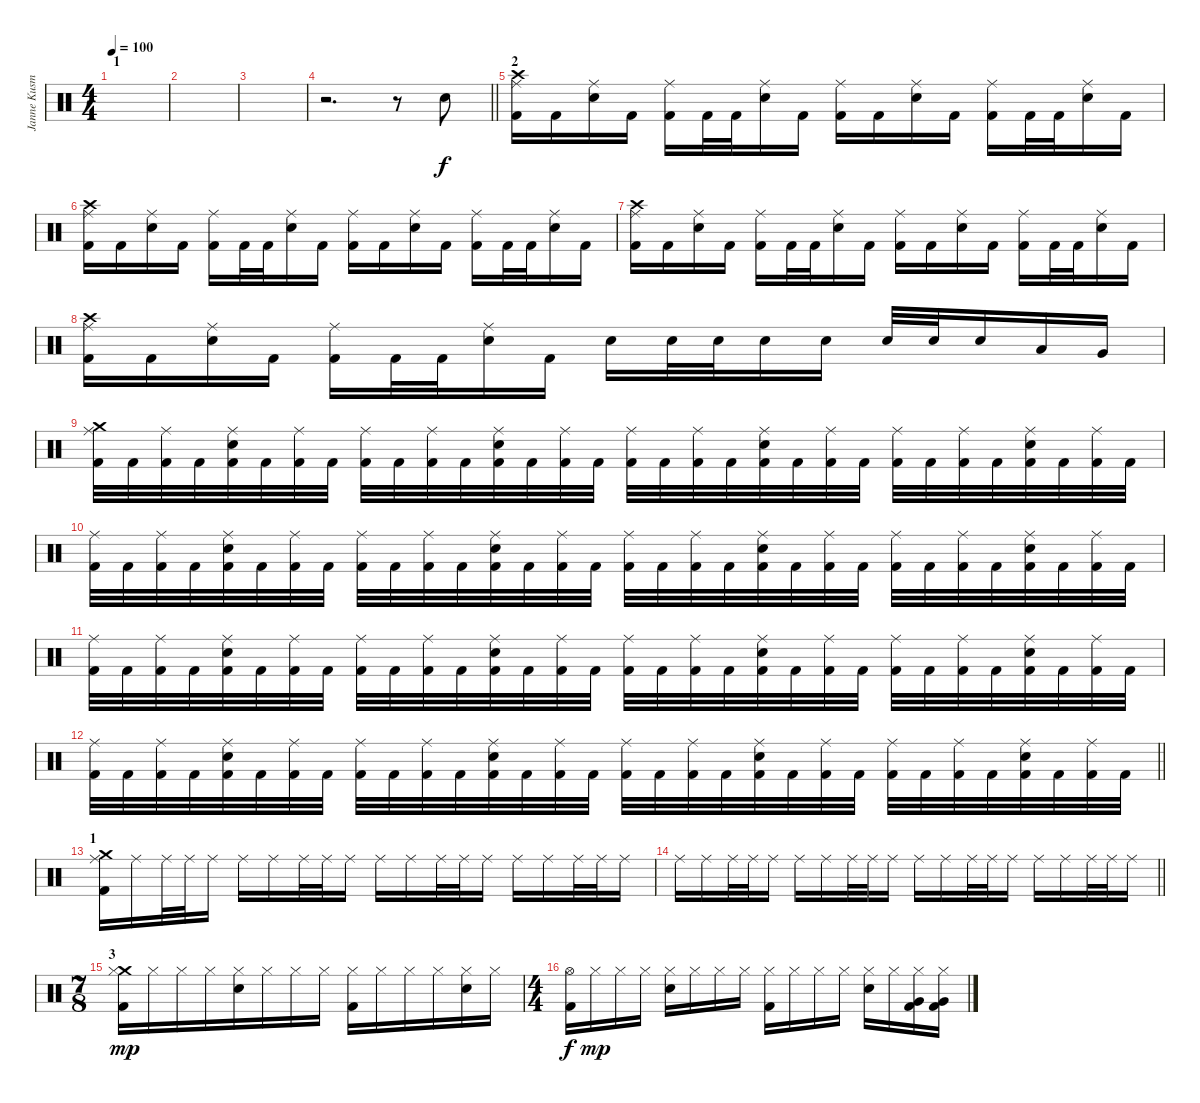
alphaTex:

\track ("Janne Kusmin " "Janne Kusm") {instrument percussion}
\staff {score}
\articulation defaults
\ts (4 4)
\section ("" "1")
\tempo 100
\clef neutral
\ks c
|
|
|
\barLineRight lightlight
r.2{d} r.8 "Electric Snare (hit)".8 |
\section ("" "2")
("Crash high (hit)" "Ride (middle)" "Kick (hit) 2").16 "Kick (hit) 2".16 ("Ride (middle)" "Electric Snare (hit)").16 "Kick (hit) 2".16 ("Ride (middle)" "Kick (hit) 2").16 "Kick (hit) 2".32 "Kick (hit) 2".32 ("Ride (middle)" "Electric Snare (hit)").16 "Kick (hit) 2".16 ("Ride (middle)" "Kick (hit) 2").16 "Kick (hit) 2".16 ("Ride (middle)" "Electric Snare (hit)").16 "Kick (hit) 2".16 ("Ride (middle)" "Kick (hit) 2").16 "Kick (hit) 2".32 "Kick (hit) 2".32 ("Ride (middle)" "Electric Snare (hit)").16 "Kick (hit) 2".16 |
("Crash high (hit)" "Ride (middle)" "Kick (hit) 2").16 "Kick (hit) 2".16 ("Ride (middle)" "Electric Snare (hit)").16 "Kick (hit) 2".16 ("Ride (middle)" "Kick (hit) 2").16 "Kick (hit) 2".32 "Kick (hit) 2".32 ("Ride (middle)" "Electric Snare (hit)").16 "Kick (hit) 2".16 ("Ride (middle)" "Kick (hit) 2").16 "Kick (hit) 2".16 ("Ride (middle)" "Electric Snare (hit)").16 "Kick (hit) 2".16 ("Ride (middle)" "Kick (hit) 2").16 "Kick (hit) 2".32 "Kick (hit) 2".32 ("Ride (middle)" "Electric Snare (hit)").16 "Kick (hit) 2".16 |
("Crash high (hit)" "Ride (middle)" "Kick (hit) 2").16 "Kick (hit) 2".16 ("Ride (middle)" "Electric Snare (hit)").16 "Kick (hit) 2".16 ("Ride (middle)" "Kick (hit) 2").16 "Kick (hit) 2".32 "Kick (hit) 2".32 ("Ride (middle)" "Electric Snare (hit)").16 "Kick (hit) 2".16 ("Ride (middle)" "Kick (hit) 2").16 "Kick (hit) 2".16 ("Ride (middle)" "Electric Snare (hit)").16 "Kick (hit) 2".16 ("Ride (middle)" "Kick (hit) 2").16 "Kick (hit) 2".32 "Kick (hit) 2".32 ("Ride (middle)" "Electric Snare (hit)").16 "Kick (hit) 2".16 |
("Crash high (hit)" "Ride (middle)" "Kick (hit) 2").16 "Kick (hit) 2".16 ("Ride (middle)" "Electric Snare (hit)").16 "Kick (hit) 2".16 ("Ride (middle)" "Kick (hit) 2").16 "Kick (hit) 2".32 "Kick (hit) 2".32 ("Ride (middle)" "Electric Snare (hit)").16 "Kick (hit) 2".16 "Electric Snare (hit)".16 "Electric Snare (hit)".32 "Electric Snare (hit)".32 "Electric Snare (hit)".16 "Electric Snare (hit)".16 "Electric Snare (hit)".32 "Electric Snare (hit)".32 "Electric Snare (hit)".16 "Low Tom (hit)".16 "Very Low Tom (hit)".16 |
("Crash medium (hit)" "Ride (middle)" "Kick (hit) 2").32 "Kick (hit) 2".32 ("Ride (middle)" "Kick (hit) 2").32 "Kick (hit) 2".32 ("Ride (middle)" "Electric Snare (hit)" "Kick (hit) 2").32 "Kick (hit) 2".32 ("Ride (middle)" "Kick (hit) 2").32 "Kick (hit) 2".32 ("Ride (middle)" "Kick (hit) 2").32 "Kick (hit) 2".32 ("Ride (middle)" "Kick (hit) 2").32 "Kick (hit) 2".32 ("Ride (middle)" "Electric Snare (hit)" "Kick (hit) 2").32 "Kick (hit) 2".32 ("Ride (middle)" "Kick (hit) 2").32 "Kick (hit) 2".32 ("Ride (middle)" "Kick (hit) 2").32 "Kick (hit) 2".32 ("Ride (middle)" "Kick (hit) 2").32 "Kick (hit) 2".32 ("Ride (middle)" "Electric Snare (hit)" "Kick (hit) 2").32 "Kick (hit) 2".32 ("Ride (middle)" "Kick (hit) 2").32 "Kick (hit) 2".32 ("Ride (middle)" "Kick (hit) 2").32 "Kick (hit) 2".32 ("Ride (middle)" "Kick (hit) 2").32 "Kick (hit) 2".32 ("Ride (middle)" "Electric Snare (hit)" "Kick (hit) 2").32 "Kick (hit) 2".32 ("Ride (middle)" "Kick (hit) 2").32 "Kick (hit) 2".32 |
("Ride (middle)" "Kick (hit) 2").32 "Kick (hit) 2".32 ("Ride (middle)" "Kick (hit) 2").32 "Kick (hit) 2".32 ("Ride (middle)" "Electric Snare (hit)" "Kick (hit) 2").32 "Kick (hit) 2".32 ("Ride (middle)" "Kick (hit) 2").32 "Kick (hit) 2".32 ("Ride (middle)" "Kick (hit) 2").32 "Kick (hit) 2".32 ("Ride (middle)" "Kick (hit) 2").32 "Kick (hit) 2".32 ("Ride (middle)" "Electric Snare (hit)" "Kick (hit) 2").32 "Kick (hit) 2".32 ("Ride (middle)" "Kick (hit) 2").32 "Kick (hit) 2".32 ("Ride (middle)" "Kick (hit) 2").32 "Kick (hit) 2".32 ("Ride (middle)" "Kick (hit) 2").32 "Kick (hit) 2".32 ("Ride (middle)" "Electric Snare (hit)" "Kick (hit) 2").32 "Kick (hit) 2".32 ("Ride (middle)" "Kick (hit) 2").32 "Kick (hit) 2".32 ("Ride (middle)" "Kick (hit) 2").32 "Kick (hit) 2".32 ("Ride (middle)" "Kick (hit) 2").32 "Kick (hit) 2".32 ("Ride (middle)" "Electric Snare (hit)" "Kick (hit) 2").32 "Kick (hit) 2".32 ("Ride (middle)" "Kick (hit) 2").32 "Kick (hit) 2".32 |
("Ride (middle)" "Kick (hit) 2").32 "Kick (hit) 2".32 ("Ride (middle)" "Kick (hit) 2").32 "Kick (hit) 2".32 ("Ride (middle)" "Electric Snare (hit)" "Kick (hit) 2").32 "Kick (hit) 2".32 ("Ride (middle)" "Kick (hit) 2").32 "Kick (hit) 2".32 ("Ride (middle)" "Kick (hit) 2").32 "Kick (hit) 2".32 ("Ride (middle)" "Kick (hit) 2").32 "Kick (hit) 2".32 ("Ride (middle)" "Electric Snare (hit)" "Kick (hit) 2").32 "Kick (hit) 2".32 ("Ride (middle)" "Kick (hit) 2").32 "Kick (hit) 2".32 ("Ride (middle)" "Kick (hit) 2").32 "Kick (hit) 2".32 ("Ride (middle)" "Kick (hit) 2").32 "Kick (hit) 2".32 ("Ride (middle)" "Electric Snare (hit)" "Kick (hit) 2").32 "Kick (hit) 2".32 ("Ride (middle)" "Kick (hit) 2").32 "Kick (hit) 2".32 ("Ride (middle)" "Kick (hit) 2").32 "Kick (hit) 2".32 ("Ride (middle)" "Kick (hit) 2").32 "Kick (hit) 2".32 ("Ride (middle)" "Electric Snare (hit)" "Kick (hit) 2").32 "Kick (hit) 2".32 ("Ride (middle)" "Kick (hit) 2").32 "Kick (hit) 2".32 |
\barLineRight lightlight
("Ride (middle)" "Kick (hit) 2").32 "Kick (hit) 2".32 ("Ride (middle)" "Kick (hit) 2").32 "Kick (hit) 2".32 ("Ride (middle)" "Electric Snare (hit)" "Kick (hit) 2").32 "Kick (hit) 2".32 ("Ride (middle)" "Kick (hit) 2").32 "Kick (hit) 2".32 ("Ride (middle)" "Kick (hit) 2").32 "Kick (hit) 2".32 ("Ride (middle)" "Kick (hit) 2").32 "Kick (hit) 2".32 ("Ride (middle)" "Electric Snare (hit)" "Kick (hit) 2").32 "Kick (hit) 2".32 ("Ride (middle)" "Kick (hit) 2").32 "Kick (hit) 2".32 ("Ride (middle)" "Kick (hit) 2").32 "Kick (hit) 2".32 ("Ride (middle)" "Kick (hit) 2").32 "Kick (hit) 2".32 ("Ride (middle)" "Electric Snare (hit)" "Kick (hit) 2").32 "Kick (hit) 2".32 ("Ride (middle)" "Kick (hit) 2").32 "Kick (hit) 2".32 ("Ride (middle)" "Kick (hit) 2").32 "Kick (hit) 2".32 ("Ride (middle)" "Kick (hit) 2").32 "Kick (hit) 2".32 ("Ride (middle)" "Electric Snare (hit)" "Kick (hit) 2").32 "Kick (hit) 2".32 ("Ride (middle)" "Kick (hit) 2").32 "Kick (hit) 2".32 |
\section ("" "1")
("Crash medium (hit)" "Ride (middle)" "Kick (hit) 2").16 "Ride (middle)".16 "Ride (middle)".32 "Ride (middle)".32 "Ride (middle)".16 "Ride (middle)".16 "Ride (middle)".16 "Ride (middle)".32 "Ride (middle)".32 "Ride (middle)".16 "Ride (middle)".16 "Ride (middle)".16 "Ride (middle)".32 "Ride (middle)".32 "Ride (middle)".16 "Ride (middle)".16 "Ride (middle)".16 "Ride (middle)".32 "Ride (middle)".32 "Ride (middle)".16 |
\barLineRight lightlight "Ride (middle)".16 "Ride (middle)".16 "Ride (middle)".32 "Ride (middle)".32 "Ride (middle)".16 "Ride (middle)".16 "Ride (middle)".16 "Ride (middle)".32 "Ride (middle)".32 "Ride (middle)".16 "Ride (middle)".16 "Ride (middle)".16 "Ride (middle)".32 "Ride (middle)".32 "Ride (middle)".16 "Ride (middle)".16 "Ride (middle)".16 "Ride (middle)".32 "Ride (middle)".32 "Ride (middle)".16
|
\ts (7 8)
\section ("" "3")
("Crash medium (hit)" "Hi-Hat (closed)" "Kick (hit) 2").16{dy mp} "Hi-Hat (closed)".16 "Hi-Hat (closed)".16 "Hi-Hat (closed)".16 ("Hi-Hat (closed)" "Electric Snare (hit)").16 "Hi-Hat (closed)".16 "Hi-Hat (closed)".16 "Hi-Hat (closed)".16 ("Hi-Hat (closed)" "Kick (hit) 2").16 "Hi-Hat (closed)".16 "Hi-Hat (closed)".16 "Hi-Hat (closed)".16 ("Hi-Hat (closed)" "Electric Snare (hit)").16 "Hi-Hat (closed)".16 |
\ts (4 4)
("Hi-Hat (open)" "Kick (hit) 2").16{dy f} "Hi-Hat (closed)".16{dy mp} "Hi-Hat (closed)".16 "Hi-Hat (closed)".16 ("Hi-Hat (closed)" "Electric Snare (hit)").16 "Hi-Hat (closed)".16 "Hi-Hat (closed)".16 "Hi-Hat (closed)".16 ("Hi-Hat (closed)" "Kick (hit) 2").16 "Hi-Hat (closed)".16 "Hi-Hat (closed)".16 "Hi-Hat (closed)".16 ("Hi-Hat (closed)" "Electric Snare (hit)").16 "Hi-Hat (closed)".16 ("Hi-Hat (closed)" "Very Low Tom (hit)" "Kick (hit) 2").16 ("Hi-Hat (closed)" "Very Low Tom (hit)" "Kick (hit) 2").16
